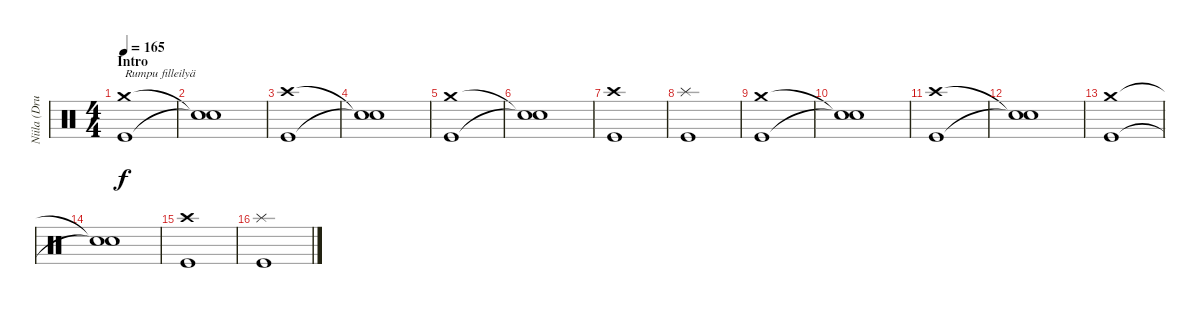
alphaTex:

\track ("Niila (Drums)" "Niila (Dru") {instrument percussion}
\staff {score}
\articulation defaults
\ts (4 4)
\section ("" "Intro")
\tempo 165
\clef neutral
\ks c
("Crash medium (hit)" "Kick (hit)").1{txt "Rumpu filleilyä" dy f} |
("Snare (hit)"{t} "Snare (hit)"{t}).1 |
("Crash high (hit)" "Kick (hit)").1 |
("Snare (hit)"{t} "Snare (hit)"{t}).1 |
("Crash medium (hit)" "Kick (hit)").1 |
("Snare (hit)"{t} "Snare (hit)"{t}).1 |
("Crash high (hit)" "Kick (hit)").1 |
("Splash (hit)" "Kick (hit)").1 |
("Crash medium (hit)" "Kick (hit)").1 |
("Snare (hit)"{t} "Snare (hit)"{t}).1 |
("Crash high (hit)" "Kick (hit)").1 |
("Snare (hit)"{t} "Snare (hit)"{t}).1 |
("Crash medium (hit)" "Kick (hit)").1 |
("Snare (hit)"{t} "Snare (hit)"{t}).1 |
("Crash high (hit)" "Kick (hit)").1 |
("Splash (hit)" "Kick (hit)").1
